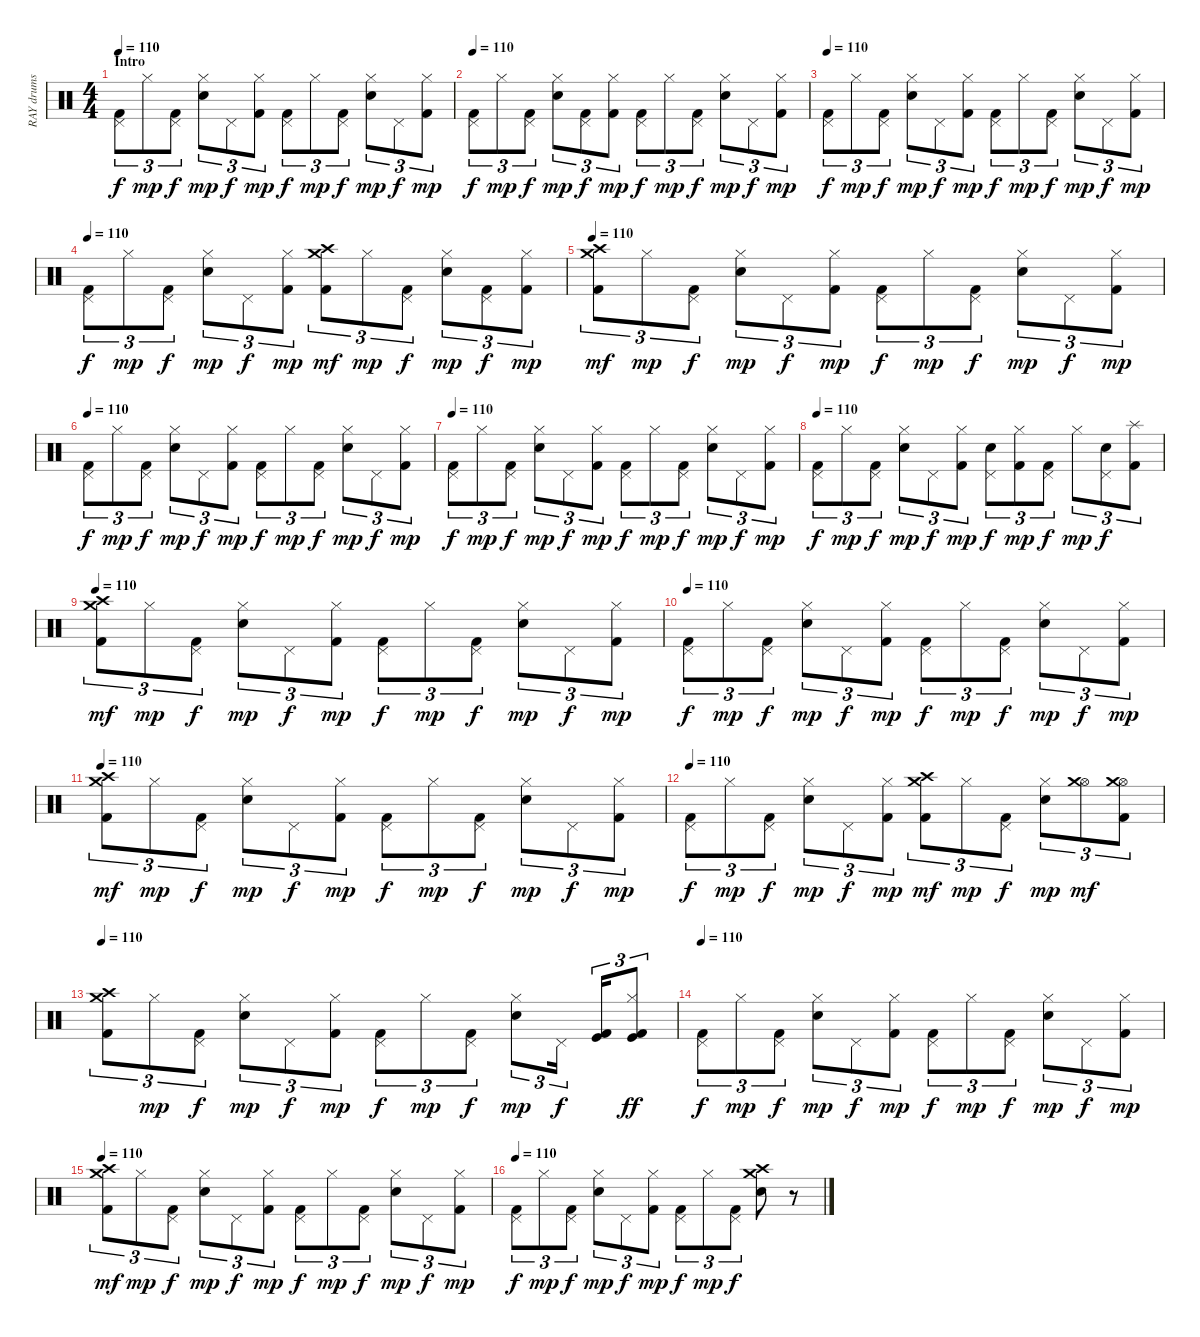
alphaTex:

\track ("RAY drums" "RAY drums") {instrument percussion}
\staff {score}
\articulation defaults
\ts (4 4)
\section ("" "Intro")
\tempo 110
\clef neutral
\ks c
("Pedal Hi-Hat (hit)" "Kick (hit) 2").8{tu (3 2) dy f volume 0} "Hi-Hat (closed)".8{tu (3 2) dy mp} ("Pedal Hi-Hat (hit)" "Kick (hit) 2").8{tu (3 2) dy f} ("Hi-Hat (closed)" "Snare (hit) 2").8{tu (3 2) dy mp volume 1} "Pedal Hi-Hat (hit)".8{tu (3 2) dy f} ("Hi-Hat (closed)" "Kick (hit) 2").8{tu (3 2) dy mp} ("Pedal Hi-Hat (hit)" "Kick (hit) 2").8{tu (3 2) dy f} "Hi-Hat (closed)".8{tu (3 2) dy mp} ("Pedal Hi-Hat (hit)" "Kick (hit) 2").8{tu (3 2) dy f} ("Hi-Hat (closed)" "Snare (hit) 2").8{tu (3 2) dy mp} "Pedal Hi-Hat (hit)".8{tu (3 2) dy f} ("Hi-Hat (closed)" "Kick (hit) 2").8{tu (3 2) dy mp} |
\tempo 110
("Pedal Hi-Hat (hit)" "Kick (hit) 2").8{tu (3 2) dy f volume 1} "Hi-Hat (closed)".8{tu (3 2) dy mp} ("Pedal Hi-Hat (hit)" "Kick (hit) 2").8{tu (3 2) dy f} ("Hi-Hat (closed)" "Snare (hit) 2").8{tu (3 2) dy mp volume 2} ("Pedal Hi-Hat (hit)" "Kick (hit) 2").8{tu (3 2) dy f} ("Hi-Hat (closed)" "Kick (hit) 2").8{tu (3 2) dy mp} ("Pedal Hi-Hat (hit)" "Kick (hit) 2").8{tu (3 2) dy f} "Hi-Hat (closed)".8{tu (3 2) dy mp} ("Pedal Hi-Hat (hit)" "Kick (hit) 2").8{tu (3 2) dy f} ("Hi-Hat (closed)" "Snare (hit) 2").8{tu (3 2) dy mp} "Pedal Hi-Hat (hit)".8{tu (3 2) dy f} ("Hi-Hat (closed)" "Kick (hit) 2").8{tu (3 2) dy mp} |
\tempo 110
("Pedal Hi-Hat (hit)" "Kick (hit) 2").8{tu (3 2) dy f volume 2} "Hi-Hat (closed)".8{tu (3 2) dy mp} ("Pedal Hi-Hat (hit)" "Kick (hit) 2").8{tu (3 2) dy f} ("Hi-Hat (closed)" "Snare (hit) 2").8{tu (3 2) dy mp volume 4} "Pedal Hi-Hat (hit)".8{tu (3 2) dy f} ("Hi-Hat (closed)" "Kick (hit) 2").8{tu (3 2) dy mp} ("Pedal Hi-Hat (hit)" "Kick (hit) 2").8{tu (3 2) dy f} "Hi-Hat (closed)".8{tu (3 2) dy mp} ("Pedal Hi-Hat (hit)" "Kick (hit) 2").8{tu (3 2) dy f} ("Hi-Hat (closed)" "Snare (hit) 2").8{tu (3 2) dy mp} "Pedal Hi-Hat (hit)".8{tu (3 2) dy f} ("Hi-Hat (closed)" "Kick (hit) 2").8{tu (3 2) dy mp} |
\tempo 110
("Pedal Hi-Hat (hit)" "Kick (hit) 2").8{tu (3 2) dy f volume 4} "Hi-Hat (closed)".8{tu (3 2) dy mp} ("Pedal Hi-Hat (hit)" "Kick (hit) 2").8{tu (3 2) dy f} ("Hi-Hat (closed)" "Snare (hit) 2").8{tu (3 2) dy mp volume 5} "Pedal Hi-Hat (hit)".8{tu (3 2) dy f} ("Hi-Hat (closed)" "Kick (hit) 2").8{tu (3 2) dy mp} ("Crash high (hit)" "Crash medium (hit)" "Kick (hit) 2").8{tu (3 2) dy mf} "Hi-Hat (closed)".8{tu (3 2) dy mp} ("Pedal Hi-Hat (hit)" "Kick (hit) 2").8{tu (3 2) dy f} ("Hi-Hat (closed)" "Snare (hit) 2").8{tu (3 2) dy mp} ("Pedal Hi-Hat (hit)" "Kick (hit) 2").8{tu (3 2) dy f} ("Hi-Hat (closed)" "Kick (hit) 2").8{tu (3 2) dy mp} |
\tempo 110
("Crash high (hit)" "Crash medium (hit)" "Kick (hit) 2").8{tu (3 2) dy mf volume 5} "Hi-Hat (closed)".8{tu (3 2) dy mp} ("Pedal Hi-Hat (hit)" "Kick (hit) 2").8{tu (3 2) dy f} ("Hi-Hat (closed)" "Snare (hit) 2").8{tu (3 2) dy mp volume 7} "Pedal Hi-Hat (hit)".8{tu (3 2) dy f} ("Hi-Hat (closed)" "Kick (hit) 2").8{tu (3 2) dy mp} ("Pedal Hi-Hat (hit)" "Kick (hit) 2").8{tu (3 2) dy f} "Hi-Hat (closed)".8{tu (3 2) dy mp} ("Pedal Hi-Hat (hit)" "Kick (hit) 2").8{tu (3 2) dy f} ("Hi-Hat (closed)" "Snare (hit) 2").8{tu (3 2) dy mp} "Pedal Hi-Hat (hit)".8{tu (3 2) dy f} ("Hi-Hat (closed)" "Kick (hit) 2").8{tu (3 2) dy mp} |
\tempo 110
("Pedal Hi-Hat (hit)" "Kick (hit) 2").8{tu (3 2) dy f volume 7} "Hi-Hat (closed)".8{tu (3 2) dy mp} ("Pedal Hi-Hat (hit)" "Kick (hit) 2").8{tu (3 2) dy f} ("Hi-Hat (closed)" "Snare (hit) 2").8{tu (3 2) dy mp volume 9} "Pedal Hi-Hat (hit)".8{tu (3 2) dy f} ("Hi-Hat (closed)" "Kick (hit) 2").8{tu (3 2) dy mp} ("Pedal Hi-Hat (hit)" "Kick (hit) 2").8{tu (3 2) dy f} "Hi-Hat (closed)".8{tu (3 2) dy mp} ("Pedal Hi-Hat (hit)" "Kick (hit) 2").8{tu (3 2) dy f} ("Hi-Hat (closed)" "Snare (hit) 2").8{tu (3 2) dy mp} "Pedal Hi-Hat (hit)".8{tu (3 2) dy f} ("Hi-Hat (closed)" "Kick (hit) 2").8{tu (3 2) dy mp} |
\tempo 110
("Pedal Hi-Hat (hit)" "Kick (hit) 2").8{tu (3 2) dy f volume 9} "Hi-Hat (closed)".8{tu (3 2) dy mp} ("Pedal Hi-Hat (hit)" "Kick (hit) 2").8{tu (3 2) dy f} ("Hi-Hat (closed)" "Snare (hit) 2").8{tu (3 2) dy mp volume 10} "Pedal Hi-Hat (hit)".8{tu (3 2) dy f} ("Hi-Hat (closed)" "Kick (hit) 2").8{tu (3 2) dy mp} ("Pedal Hi-Hat (hit)" "Kick (hit) 2").8{tu (3 2) dy f} "Hi-Hat (closed)".8{tu (3 2) dy mp} ("Pedal Hi-Hat (hit)" "Kick (hit) 2").8{tu (3 2) dy f} ("Hi-Hat (closed)" "Snare (hit) 2").8{tu (3 2) dy mp} "Pedal Hi-Hat (hit)".8{tu (3 2) dy f} ("Hi-Hat (closed)" "Kick (hit) 2").8{tu (3 2) dy mp} |
\tempo 110
("Pedal Hi-Hat (hit)" "Kick (hit) 2").8{tu (3 2) dy f volume 10} "Hi-Hat (closed)".8{tu (3 2) dy mp} ("Pedal Hi-Hat (hit)" "Kick (hit) 2").8{tu (3 2) dy f} ("Hi-Hat (closed)" "Snare (hit) 2").8{tu (3 2) dy mp volume 12} "Pedal Hi-Hat (hit)".8{tu (3 2) dy f} ("Hi-Hat (closed)" "Kick (hit) 2").8{tu (3 2) dy mp} ("Pedal Hi-Hat (hit)" "Snare (hit) 2").8{tu (3 2) dy f} ("Hi-Hat (closed)" "Kick (hit) 2").8{tu (3 2) dy mp} ("Pedal Hi-Hat (hit)" "Kick (hit) 2").8{tu (3 2) dy f} "Hi-Hat (closed)".8{tu (3 2) dy mp} ("Pedal Hi-Hat (hit)" "Snare (hit) 2").8{tu (3 2) dy f} ("Splash (hit)" "Kick (hit) 2").8{tu (3 2)} |
\tempo 110
("Crash high (hit)" "Crash medium (hit)" "Kick (hit) 2").8{tu (3 2) dy mf volume 12} "Hi-Hat (closed)".8{tu (3 2) dy mp} ("Pedal Hi-Hat (hit)" "Kick (hit) 2").8{tu (3 2) dy f} ("Hi-Hat (closed)" "Snare (hit) 2").8{tu (3 2) dy mp volume 14} "Pedal Hi-Hat (hit)".8{tu (3 2) dy f} ("Hi-Hat (closed)" "Kick (hit) 2").8{tu (3 2) dy mp} ("Pedal Hi-Hat (hit)" "Kick (hit) 2").8{tu (3 2) dy f} "Hi-Hat (closed)".8{tu (3 2) dy mp} ("Pedal Hi-Hat (hit)" "Kick (hit) 2").8{tu (3 2) dy f} ("Hi-Hat (closed)" "Snare (hit) 2").8{tu (3 2) dy mp} "Pedal Hi-Hat (hit)".8{tu (3 2) dy f} ("Hi-Hat (closed)" "Kick (hit) 2").8{tu (3 2) dy mp} |
\tempo 110
("Pedal Hi-Hat (hit)" "Kick (hit) 2").8{tu (3 2) dy f volume 14} "Hi-Hat (closed)".8{tu (3 2) dy mp} ("Pedal Hi-Hat (hit)" "Kick (hit) 2").8{tu (3 2) dy f} ("Hi-Hat (closed)" "Snare (hit) 2").8{tu (3 2) dy mp volume 16} "Pedal Hi-Hat (hit)".8{tu (3 2) dy f} ("Hi-Hat (closed)" "Kick (hit) 2").8{tu (3 2) dy mp} ("Pedal Hi-Hat (hit)" "Kick (hit) 2").8{tu (3 2) dy f} "Hi-Hat (closed)".8{tu (3 2) dy mp} ("Pedal Hi-Hat (hit)" "Kick (hit) 2").8{tu (3 2) dy f} ("Hi-Hat (closed)" "Snare (hit) 2").8{tu (3 2) dy mp} "Pedal Hi-Hat (hit)".8{tu (3 2) dy f} ("Hi-Hat (closed)" "Kick (hit) 2").8{tu (3 2) dy mp} |
\tempo 110
("Crash high (hit)" "Crash medium (hit)" "Kick (hit) 2").8{tu (3 2) dy mf volume 16} "Hi-Hat (closed)".8{tu (3 2) dy mp} ("Pedal Hi-Hat (hit)" "Kick (hit) 2").8{tu (3 2) dy f} ("Hi-Hat (closed)" "Snare (hit) 2").8{tu (3 2) dy mp} "Pedal Hi-Hat (hit)".8{tu (3 2) dy f} ("Hi-Hat (closed)" "Kick (hit) 2").8{tu (3 2) dy mp} ("Pedal Hi-Hat (hit)" "Kick (hit) 2").8{tu (3 2) dy f} "Hi-Hat (closed)".8{tu (3 2) dy mp} ("Pedal Hi-Hat (hit)" "Kick (hit) 2").8{tu (3 2) dy f} ("Hi-Hat (closed)" "Snare (hit) 2").8{tu (3 2) dy mp} "Pedal Hi-Hat (hit)".8{tu (3 2) dy f} ("Hi-Hat (closed)" "Kick (hit) 2").8{tu (3 2) dy mp} |
\tempo 110
("Pedal Hi-Hat (hit)" "Kick (hit) 2").8{tu (3 2) dy f} "Hi-Hat (closed)".8{tu (3 2) dy mp} ("Pedal Hi-Hat (hit)" "Kick (hit) 2").8{tu (3 2) dy f} ("Hi-Hat (closed)" "Snare (hit) 2").8{tu (3 2) dy mp} "Pedal Hi-Hat (hit)".8{tu (3 2) dy f} ("Hi-Hat (closed)" "Kick (hit) 2").8{tu (3 2) dy mp} ("Crash high (hit)" "Crash medium (hit)" "Kick (hit) 2").8{tu (3 2) dy mf} "Hi-Hat (closed)".8{tu (3 2) dy mp} ("Pedal Hi-Hat (hit)" "Kick (hit) 2").8{tu (3 2) dy f} ("Hi-Hat (closed)" "Snare (hit) 2").8{tu (3 2) dy mp} ("Hi-Hat (open)" "Crash medium (hit)").8{tu (3 2) dy mf} ("Hi-Hat (open)" "Crash medium (hit)" "Kick (hit) 2").8{tu (3 2)} |
\tempo 110
("Crash high (hit)" "Crash medium (hit)" "Kick (hit) 2").8{tu (3 2)} "Hi-Hat (closed)".8{tu (3 2) dy mp} ("Pedal Hi-Hat (hit)" "Kick (hit) 2").8{tu (3 2) dy f} ("Hi-Hat (closed)" "Snare (hit) 2").8{tu (3 2) dy mp} "Pedal Hi-Hat (hit)".8{tu (3 2) dy f} ("Hi-Hat (closed)" "Kick (hit) 2").8{tu (3 2) dy mp} ("Pedal Hi-Hat (hit)" "Kick (hit) 2").8{tu (3 2) dy f} "Hi-Hat (closed)".8{tu (3 2) dy mp} ("Pedal Hi-Hat (hit)" "Kick (hit) 2").8{tu (3 2) dy f} ("Hi-Hat (closed)" "Snare (hit) 2").8{tu (3 2) dy mp} "Pedal Hi-Hat (hit)".16{tu (3 2) dy f} ("Kick (hit)" "Kick (hit) 2").16{tu (3 2)} ("Hi-Hat (closed)" "Kick (hit)" "Kick (hit) 2").8{tu (3 2) dy ff} |
\tempo 110
("Pedal Hi-Hat (hit)" "Kick (hit) 2").8{tu (3 2) dy f} "Hi-Hat (closed)".8{tu (3 2) dy mp} ("Pedal Hi-Hat (hit)" "Kick (hit) 2").8{tu (3 2) dy f} ("Hi-Hat (closed)" "Snare (hit) 2").8{tu (3 2) dy mp} "Pedal Hi-Hat (hit)".8{tu (3 2) dy f} ("Hi-Hat (closed)" "Kick (hit) 2").8{tu (3 2) dy mp} ("Pedal Hi-Hat (hit)" "Kick (hit) 2").8{tu (3 2) dy f} "Hi-Hat (closed)".8{tu (3 2) dy mp} ("Pedal Hi-Hat (hit)" "Kick (hit) 2").8{tu (3 2) dy f} ("Hi-Hat (closed)" "Snare (hit) 2").8{tu (3 2) dy mp} "Pedal Hi-Hat (hit)".8{tu (3 2) dy f} ("Hi-Hat (closed)" "Kick (hit) 2").8{tu (3 2) dy mp} |
\tempo 110
("Crash high (hit)" "Crash medium (hit)" "Kick (hit) 2").8{tu (3 2) dy mf} "Hi-Hat (closed)".8{tu (3 2) dy mp} ("Pedal Hi-Hat (hit)" "Kick (hit) 2").8{tu (3 2) dy f} ("Hi-Hat (closed)" "Snare (hit) 2").8{tu (3 2) dy mp} "Pedal Hi-Hat (hit)".8{tu (3 2) dy f} ("Hi-Hat (closed)" "Kick (hit) 2").8{tu (3 2) dy mp} ("Pedal Hi-Hat (hit)" "Kick (hit) 2").8{tu (3 2) dy f} "Hi-Hat (closed)".8{tu (3 2) dy mp} ("Pedal Hi-Hat (hit)" "Kick (hit) 2").8{tu (3 2) dy f} ("Hi-Hat (closed)" "Snare (hit) 2").8{tu (3 2) dy mp} "Pedal Hi-Hat (hit)".8{tu (3 2) dy f} ("Hi-Hat (closed)" "Kick (hit) 2").8{tu (3 2) dy mp} |
\tempo 110
("Pedal Hi-Hat (hit)" "Kick (hit) 2").8{tu (3 2) dy f} "Hi-Hat (closed)".8{tu (3 2) dy mp} ("Pedal Hi-Hat (hit)" "Kick (hit) 2").8{tu (3 2) dy f} ("Hi-Hat (closed)" "Snare (hit) 2").8{tu (3 2) dy mp} "Pedal Hi-Hat (hit)".8{tu (3 2) dy f} ("Hi-Hat (closed)" "Kick (hit) 2").8{tu (3 2) dy mp} ("Pedal Hi-Hat (hit)" "Kick (hit) 2").8{tu (3 2) dy f} "Hi-Hat (closed)".8{tu (3 2) dy mp} ("Pedal Hi-Hat (hit)" "Kick (hit) 2").8{tu (3 2) dy f} ("Crash high (hit)" "Crash medium (hit)" "Snare (hit) 2").8 r.8
